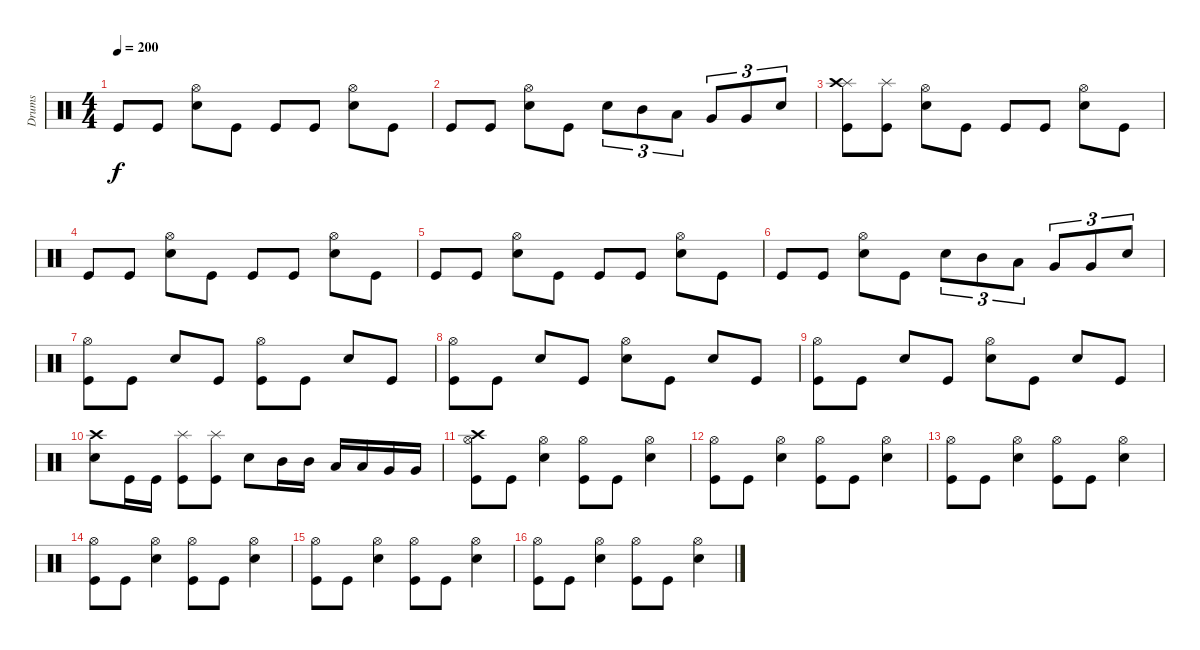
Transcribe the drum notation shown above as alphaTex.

\track ("Drums" "Drums") {instrument percussion}
\staff {score}
\articulation defaults
\ts (4 4)
\tempo 200
\clef neutral
\ks c "Kick (hit)".8{dy f} "Kick (hit)".8
("Hi-Hat (open)" "Electric Snare (hit)").8 "Kick (hit)".8 "Kick (hit)".8 "Kick (hit)".8 ("Hi-Hat (open)" "Electric Snare (hit)").8 "Kick (hit)".8 |
"Kick (hit)".8 "Kick (hit)".8 ("Hi-Hat (open)" "Electric Snare (hit)").8 "Kick (hit)".8 "Electric Snare (hit)".8{tu (3 2)} "Mid Tom (hit)".8{tu (3 2)} "Low Tom (hit)".8{tu (3 2)} "Very Low Tom (hit)".8{tu (3 2)} "Very Low Tom (hit)".8{tu (3 2)} "Electric Snare (hit)".8{tu (3 2)} |
("Splash (hit)" "Kick (hit)" "Crash high (hit)").8 ("Splash (hit)" "Kick (hit)").8 ("Hi-Hat (open)" "Electric Snare (hit)").8 "Kick (hit)".8 "Kick (hit)".8 "Kick (hit)".8 ("Hi-Hat (open)" "Electric Snare (hit)").8 "Kick (hit)".8 |
"Kick (hit)".8 "Kick (hit)".8 ("Hi-Hat (open)" "Electric Snare (hit)").8 "Kick (hit)".8 "Kick (hit)".8 "Kick (hit)".8 ("Hi-Hat (open)" "Electric Snare (hit)").8 "Kick (hit)".8 |
"Kick (hit)".8 "Kick (hit)".8 ("Hi-Hat (open)" "Electric Snare (hit)").8 "Kick (hit)".8 "Kick (hit)".8 "Kick (hit)".8 ("Hi-Hat (open)" "Electric Snare (hit)").8 "Kick (hit)".8 |
"Kick (hit)".8 "Kick (hit)".8 ("Hi-Hat (open)" "Electric Snare (hit)").8 "Kick (hit)".8 "Electric Snare (hit)".8{tu (3 2)} "Mid Tom (hit)".8{tu (3 2)} "Low Tom (hit)".8{tu (3 2)} "Very Low Tom (hit)".8{tu (3 2)} "Very Low Tom (hit)".8{tu (3 2)} "Electric Snare (hit)".8{tu (3 2)} |
("Hi-Hat (open)" "Kick (hit)").8 "Kick (hit)".8 "Electric Snare (hit)".8 "Kick (hit)".8 ("Hi-Hat (open)" "Kick (hit)").8 "Kick (hit)".8 "Electric Snare (hit)".8 "Kick (hit)".8 |
("Hi-Hat (open)" "Kick (hit)").8 "Kick (hit)".8 "Electric Snare (hit)".8 "Kick (hit)".8 ("Hi-Hat (open)" "Electric Snare (hit)").8 "Kick (hit)".8 "Electric Snare (hit)".8 "Kick (hit)".8 |
("Hi-Hat (open)" "Kick (hit)").8 "Kick (hit)".8 "Electric Snare (hit)".8 "Kick (hit)".8 ("Electric Snare (hit)" "Hi-Hat (open)").8 "Kick (hit)".8 "Electric Snare (hit)".8 "Kick (hit)".8 |
("Crash high (hit)" "Electric Snare (hit)").8 "Kick (hit)".16 "Kick (hit)".16 ("Splash (hit)" "Kick (hit)").8 ("Splash (hit)" "Kick (hit)").8 "Electric Snare (hit)".8 "Mid Tom (hit)".16 "Mid Tom (hit)".16 "Low Tom (hit)".16 "Low Tom (hit)".16 "Very Low Tom (hit)".16 "Very Low Tom (hit)".16 |
("Crash high (hit)" "Kick (hit)" "Hi-Hat (open)").8 "Kick (hit)".8 ("Electric Snare (hit)" "Hi-Hat (open)").4 ("Hi-Hat (open)" "Kick (hit)").8 "Kick (hit)".8 ("Electric Snare (hit)" "Hi-Hat (open)").4 |
("Kick (hit)" "Hi-Hat (open)").8 "Kick (hit)".8 ("Electric Snare (hit)" "Hi-Hat (open)").4 ("Hi-Hat (open)" "Kick (hit)").8 "Kick (hit)".8 ("Electric Snare (hit)" "Hi-Hat (open)").4 |
("Kick (hit)" "Hi-Hat (open)").8 "Kick (hit)".8 ("Electric Snare (hit)" "Hi-Hat (open)").4 ("Hi-Hat (open)" "Kick (hit)").8 "Kick (hit)".8 ("Electric Snare (hit)" "Hi-Hat (open)").4 |
("Kick (hit)" "Hi-Hat (open)").8 "Kick (hit)".8 ("Electric Snare (hit)" "Hi-Hat (open)").4 ("Hi-Hat (open)" "Kick (hit)").8 "Kick (hit)".8 ("Electric Snare (hit)" "Hi-Hat (open)").4 |
("Kick (hit)" "Hi-Hat (open)").8 "Kick (hit)".8 ("Electric Snare (hit)" "Hi-Hat (open)").4 ("Kick (hit)" "Hi-Hat (open)").8 "Kick (hit)".8 ("Electric Snare (hit)" "Hi-Hat (open)").4 |
("Kick (hit)" "Hi-Hat (open)").8 "Kick (hit)".8 ("Electric Snare (hit)" "Hi-Hat (open)").4 ("Kick (hit)" "Hi-Hat (open)").8 "Kick (hit)".8 ("Electric Snare (hit)" "Hi-Hat (open)").4
